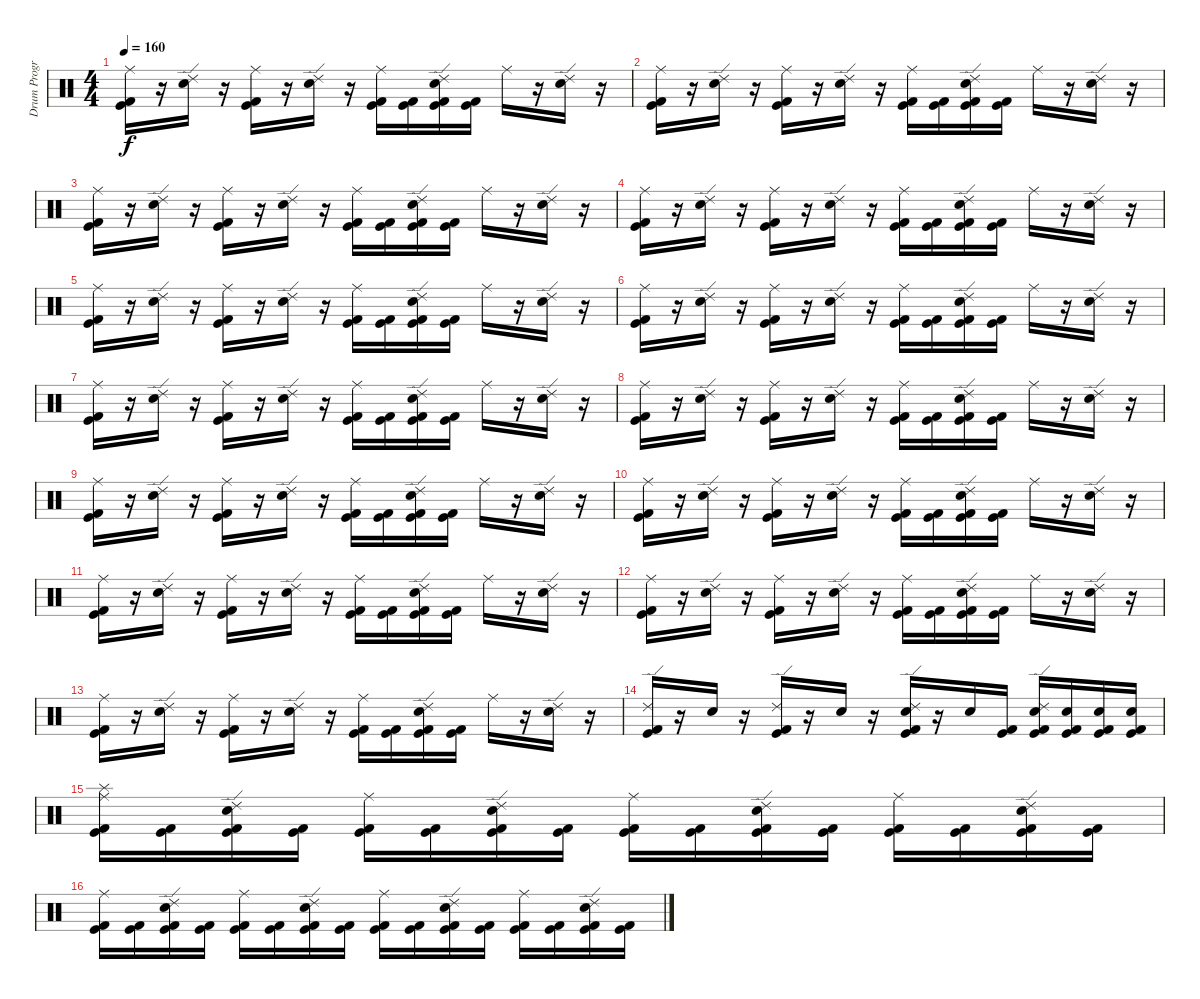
\track ("Drum Program - BG" "Drum Progr") {instrument percussion}
\staff {score}
\articulation defaults
\ts (4 4)
\tempo 160
\clef neutral
\ks c
("Kick (hit) 2" "Kick (hit)" "Ride (middle)").16{dy f} r.16 ("Electric Snare (hit)" "Ride (edge) 2").16 r.16 ("Kick (hit)" "Kick (hit) 2" "Ride (middle)").16 r.16 ("Electric Snare (hit)" "Ride (edge) 2").16 r.16 ("Kick (hit)" "Kick (hit) 2" "Ride (middle)").16 ("Kick (hit)" "Kick (hit) 2").16 ("Kick (hit)" "Kick (hit) 2" "Electric Snare (hit)" "Ride (edge) 2").16 ("Kick (hit)" "Kick (hit) 2").16 "Ride (middle)".16 r.16 ("Electric Snare (hit)" "Ride (edge) 2").16 r.16 |
("Kick (hit) 2" "Kick (hit)" "Ride (middle)").16 r.16 ("Electric Snare (hit)" "Ride (edge) 2").16 r.16 ("Kick (hit)" "Kick (hit) 2" "Ride (middle)").16 r.16 ("Electric Snare (hit)" "Ride (edge) 2").16 r.16 ("Kick (hit)" "Kick (hit) 2" "Ride (middle)").16 ("Kick (hit)" "Kick (hit) 2").16 ("Kick (hit)" "Kick (hit) 2" "Electric Snare (hit)" "Ride (edge) 2").16 ("Kick (hit)" "Kick (hit) 2").16 "Ride (middle)".16 r.16 ("Electric Snare (hit)" "Ride (edge) 2").16 r.16 |
("Kick (hit) 2" "Kick (hit)" "Ride (middle)").16 r.16 ("Electric Snare (hit)" "Ride (edge) 2").16 r.16 ("Kick (hit)" "Kick (hit) 2" "Ride (middle)").16 r.16 ("Electric Snare (hit)" "Ride (edge) 2").16 r.16 ("Kick (hit)" "Kick (hit) 2" "Ride (middle)").16 ("Kick (hit)" "Kick (hit) 2").16 ("Kick (hit)" "Kick (hit) 2" "Electric Snare (hit)" "Ride (edge) 2").16 ("Kick (hit)" "Kick (hit) 2").16 "Ride (middle)".16 r.16 ("Electric Snare (hit)" "Ride (edge) 2").16 r.16 |
("Kick (hit) 2" "Kick (hit)" "Ride (middle)").16 r.16 ("Electric Snare (hit)" "Ride (edge) 2").16 r.16 ("Kick (hit)" "Kick (hit) 2" "Ride (middle)").16 r.16 ("Electric Snare (hit)" "Ride (edge) 2").16 r.16 ("Kick (hit)" "Kick (hit) 2" "Ride (middle)").16 ("Kick (hit)" "Kick (hit) 2").16 ("Kick (hit)" "Kick (hit) 2" "Electric Snare (hit)" "Ride (edge) 2").16 ("Kick (hit)" "Kick (hit) 2").16 "Ride (middle)".16 r.16 ("Electric Snare (hit)" "Ride (edge) 2").16 r.16 |
("Kick (hit) 2" "Kick (hit)" "Ride (middle)").16 r.16 ("Electric Snare (hit)" "Ride (edge) 2").16 r.16 ("Kick (hit)" "Kick (hit) 2" "Ride (middle)").16 r.16 ("Electric Snare (hit)" "Ride (edge) 2").16 r.16 ("Kick (hit)" "Kick (hit) 2" "Ride (middle)").16 ("Kick (hit)" "Kick (hit) 2").16 ("Kick (hit)" "Kick (hit) 2" "Electric Snare (hit)" "Ride (edge) 2").16 ("Kick (hit)" "Kick (hit) 2").16 "Ride (middle)".16 r.16 ("Electric Snare (hit)" "Ride (edge) 2").16 r.16 |
("Kick (hit) 2" "Kick (hit)" "Ride (middle)").16 r.16 ("Electric Snare (hit)" "Ride (edge) 2").16 r.16 ("Kick (hit)" "Kick (hit) 2" "Ride (middle)").16 r.16 ("Electric Snare (hit)" "Ride (edge) 2").16 r.16 ("Kick (hit)" "Kick (hit) 2" "Ride (middle)").16 ("Kick (hit)" "Kick (hit) 2").16 ("Kick (hit)" "Kick (hit) 2" "Electric Snare (hit)" "Ride (edge) 2").16 ("Kick (hit)" "Kick (hit) 2").16 "Ride (middle)".16 r.16 ("Electric Snare (hit)" "Ride (edge) 2").16 r.16 |
("Kick (hit) 2" "Kick (hit)" "Ride (middle)").16 r.16 ("Electric Snare (hit)" "Ride (edge) 2").16 r.16 ("Kick (hit)" "Kick (hit) 2" "Ride (middle)").16 r.16 ("Electric Snare (hit)" "Ride (edge) 2").16 r.16 ("Kick (hit)" "Kick (hit) 2" "Ride (middle)").16 ("Kick (hit)" "Kick (hit) 2").16 ("Kick (hit)" "Kick (hit) 2" "Electric Snare (hit)" "Ride (edge) 2").16 ("Kick (hit)" "Kick (hit) 2").16 "Ride (middle)".16 r.16 ("Electric Snare (hit)" "Ride (edge) 2").16 r.16 |
("Kick (hit) 2" "Kick (hit)" "Ride (middle)").16 r.16 ("Electric Snare (hit)" "Ride (edge) 2").16 r.16 ("Kick (hit)" "Kick (hit) 2" "Ride (middle)").16 r.16 ("Electric Snare (hit)" "Ride (edge) 2").16 r.16 ("Kick (hit)" "Kick (hit) 2" "Ride (middle)").16 ("Kick (hit)" "Kick (hit) 2").16 ("Kick (hit)" "Kick (hit) 2" "Electric Snare (hit)" "Ride (edge) 2").16 ("Kick (hit)" "Kick (hit) 2").16 "Ride (middle)".16 r.16 ("Electric Snare (hit)" "Ride (edge) 2").16 r.16 |
("Kick (hit) 2" "Kick (hit)" "Ride (middle)").16 r.16 ("Electric Snare (hit)" "Ride (edge) 2").16 r.16 ("Kick (hit)" "Kick (hit) 2" "Ride (middle)").16 r.16 ("Electric Snare (hit)" "Ride (edge) 2").16 r.16 ("Kick (hit)" "Kick (hit) 2" "Ride (middle)").16 ("Kick (hit)" "Kick (hit) 2").16 ("Kick (hit)" "Kick (hit) 2" "Electric Snare (hit)" "Ride (edge) 2").16 ("Kick (hit)" "Kick (hit) 2").16 "Ride (middle)".16 r.16 ("Electric Snare (hit)" "Ride (edge) 2").16 r.16 |
("Kick (hit) 2" "Kick (hit)" "Ride (middle)").16 r.16 ("Electric Snare (hit)" "Ride (edge) 2").16 r.16 ("Kick (hit)" "Kick (hit) 2" "Ride (middle)").16 r.16 ("Electric Snare (hit)" "Ride (edge) 2").16 r.16 ("Kick (hit)" "Kick (hit) 2" "Ride (middle)").16 ("Kick (hit)" "Kick (hit) 2").16 ("Kick (hit)" "Kick (hit) 2" "Electric Snare (hit)" "Ride (edge) 2").16 ("Kick (hit)" "Kick (hit) 2").16 "Ride (middle)".16 r.16 ("Electric Snare (hit)" "Ride (edge) 2").16 r.16 |
("Kick (hit) 2" "Kick (hit)" "Ride (middle)").16 r.16 ("Electric Snare (hit)" "Ride (edge) 2").16 r.16 ("Kick (hit)" "Kick (hit) 2" "Ride (middle)").16 r.16 ("Electric Snare (hit)" "Ride (edge) 2").16 r.16 ("Kick (hit)" "Kick (hit) 2" "Ride (middle)").16 ("Kick (hit)" "Kick (hit) 2").16 ("Kick (hit)" "Kick (hit) 2" "Electric Snare (hit)" "Ride (edge) 2").16 ("Kick (hit)" "Kick (hit) 2").16 "Ride (middle)".16 r.16 ("Electric Snare (hit)" "Ride (edge) 2").16 r.16 |
("Kick (hit) 2" "Kick (hit)" "Ride (middle)").16 r.16 ("Electric Snare (hit)" "Ride (edge) 2").16 r.16 ("Kick (hit)" "Kick (hit) 2" "Ride (middle)").16 r.16 ("Electric Snare (hit)" "Ride (edge) 2").16 r.16 ("Kick (hit)" "Kick (hit) 2" "Ride (middle)").16 ("Kick (hit)" "Kick (hit) 2").16 ("Kick (hit)" "Kick (hit) 2" "Electric Snare (hit)" "Ride (edge) 2").16 ("Kick (hit)" "Kick (hit) 2").16 "Ride (middle)".16 r.16 ("Electric Snare (hit)" "Ride (edge) 2").16 r.16 |
("Kick (hit) 2" "Kick (hit)" "Ride (middle)").16 r.16 ("Electric Snare (hit)" "Ride (edge) 2").16 r.16 ("Kick (hit)" "Kick (hit) 2" "Ride (middle)").16 r.16 ("Electric Snare (hit)" "Ride (edge) 2").16 r.16 ("Kick (hit)" "Kick (hit) 2" "Ride (middle)").16 ("Kick (hit)" "Kick (hit) 2").16 ("Kick (hit)" "Kick (hit) 2" "Electric Snare (hit)" "Ride (edge) 2").16 ("Kick (hit)" "Kick (hit) 2").16 "Ride (middle)".16 r.16 ("Electric Snare (hit)" "Ride (edge) 2").16 r.16 |
("Kick (hit)" "Kick (hit) 2" "Ride (edge) 2").16 r.16 "Electric Snare (hit)".16 r.16 ("Kick (hit)" "Kick (hit) 2" "Ride (edge) 2").16 r.16 "Electric Snare (hit)".16 r.16 ("Kick (hit)" "Kick (hit) 2" "Electric Snare (hit)" "Ride (edge) 2").16 r.16 "Electric Snare (hit)".16 ("Kick (hit)" "Kick (hit) 2").16 ("Kick (hit)" "Kick (hit) 2" "Electric Snare (hit)" "Ride (edge) 2").16 ("Kick (hit)" "Kick (hit) 2" "Electric Snare (hit)").16 ("Kick (hit)" "Kick (hit) 2" "Electric Snare (hit)").16 ("Kick (hit)" "Kick (hit) 2" "Electric Snare (hit)").16 |
("Kick (hit)" "Kick (hit) 2" "Splash (hit)" "Ride (middle)").16 ("Kick (hit)" "Kick (hit) 2").16 ("Kick (hit)" "Kick (hit) 2" "Electric Snare (hit)" "Ride (edge) 2").16 ("Kick (hit)" "Kick (hit) 2").16 ("Kick (hit)" "Kick (hit) 2" "Ride (middle)").16 ("Kick (hit)" "Kick (hit) 2").16 ("Kick (hit)" "Kick (hit) 2" "Electric Snare (hit)" "Ride (edge) 2").16 ("Kick (hit)" "Kick (hit) 2").16 ("Kick (hit)" "Kick (hit) 2" "Ride (middle)").16 ("Kick (hit)" "Kick (hit) 2").16 ("Kick (hit)" "Kick (hit) 2" "Electric Snare (hit)" "Ride (edge) 2").16 ("Kick (hit)" "Kick (hit) 2").16 ("Kick (hit)" "Kick (hit) 2" "Ride (middle)").16 ("Kick (hit)" "Kick (hit) 2").16 ("Kick (hit)" "Kick (hit) 2" "Electric Snare (hit)" "Ride (edge) 2").16 ("Kick (hit)" "Kick (hit) 2").16 |
("Kick (hit)" "Kick (hit) 2" "Ride (middle)").16 ("Kick (hit)" "Kick (hit) 2").16 ("Kick (hit)" "Kick (hit) 2" "Electric Snare (hit)" "Ride (edge) 2").16 ("Kick (hit)" "Kick (hit) 2").16 ("Kick (hit)" "Kick (hit) 2" "Ride (middle)").16 ("Kick (hit)" "Kick (hit) 2").16 ("Kick (hit)" "Kick (hit) 2" "Electric Snare (hit)" "Ride (edge) 2").16 ("Kick (hit)" "Kick (hit) 2").16 ("Kick (hit)" "Kick (hit) 2" "Ride (middle)").16 ("Kick (hit)" "Kick (hit) 2").16 ("Kick (hit)" "Kick (hit) 2" "Electric Snare (hit)" "Ride (edge) 2").16 ("Kick (hit)" "Kick (hit) 2").16 ("Kick (hit)" "Kick (hit) 2" "Ride (middle)").16 ("Kick (hit)" "Kick (hit) 2").16 ("Kick (hit)" "Kick (hit) 2" "Electric Snare (hit)" "Ride (edge) 2").16 ("Kick (hit)" "Kick (hit) 2").16
